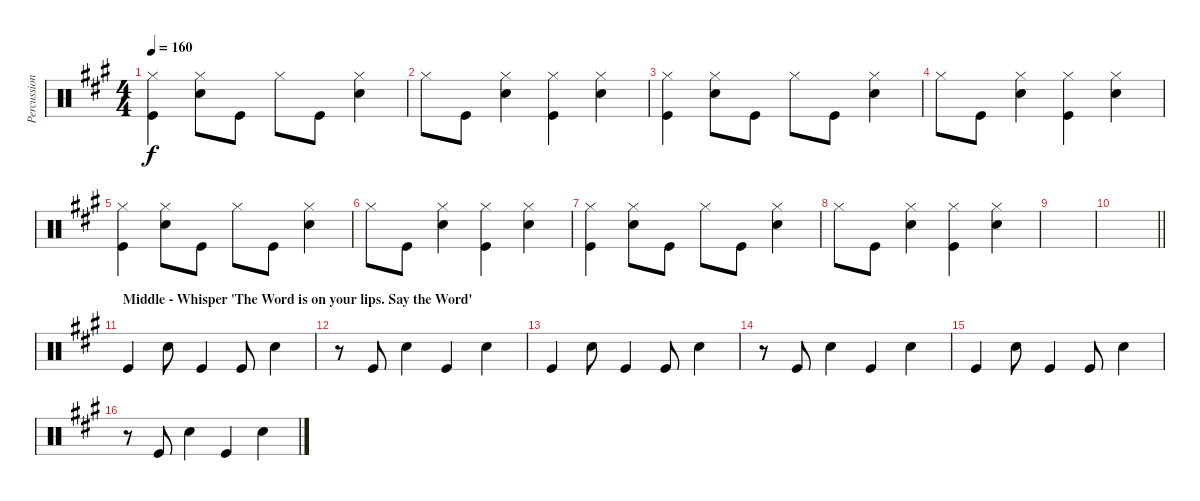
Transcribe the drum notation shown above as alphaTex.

\track ("Percussion" "Percussion") {instrument percussion}
\staff {score}
\articulation defaults
\ts (4 4)
\tempo 160
\clef neutral
\ks a
("Hi-Hat (closed)" "Kick (hit)").4{dy f} ("Snare (hit) 2" "Hi-Hat (closed)").8 "Kick (hit)".8 "Hi-Hat (closed)".8 "Kick (hit)".8 ("Snare (hit) 2" "Hi-Hat (closed)").4 |
"Hi-Hat (closed)".8 "Kick (hit)".8 ("Snare (hit) 2" "Hi-Hat (closed)").4 ("Kick (hit)" "Hi-Hat (closed)").4 ("Snare (hit) 2" "Hi-Hat (closed)").4 |
("Hi-Hat (closed)" "Kick (hit)").4 ("Snare (hit) 2" "Hi-Hat (closed)").8 "Kick (hit)".8 "Hi-Hat (closed)".8 "Kick (hit)".8 ("Snare (hit) 2" "Hi-Hat (closed)").4 |
"Hi-Hat (closed)".8 "Kick (hit)".8 ("Snare (hit) 2" "Hi-Hat (closed)").4 ("Kick (hit)" "Hi-Hat (closed)").4 ("Snare (hit) 2" "Hi-Hat (closed)").4 |
("Hi-Hat (closed)" "Kick (hit)").4 ("Snare (hit) 2" "Hi-Hat (closed)").8 "Kick (hit)".8 "Hi-Hat (closed)".8 "Kick (hit)".8 ("Snare (hit) 2" "Hi-Hat (closed)").4 |
"Hi-Hat (closed)".8 "Kick (hit)".8 ("Snare (hit) 2" "Hi-Hat (closed)").4 ("Kick (hit)" "Hi-Hat (closed)").4 ("Snare (hit) 2" "Hi-Hat (closed)").4 |
("Hi-Hat (closed)" "Kick (hit)").4 ("Snare (hit) 2" "Hi-Hat (closed)").8 "Kick (hit)".8 "Hi-Hat (closed)".8 "Kick (hit)".8 ("Snare (hit) 2" "Hi-Hat (closed)").4 |
"Hi-Hat (closed)".8 "Kick (hit)".8 ("Snare (hit) 2" "Hi-Hat (closed)").4 ("Kick (hit)" "Hi-Hat (closed)").4 ("Snare (hit) 2" "Hi-Hat (closed)").4 |
|
\barLineRight lightlight
|
\section ("" "Middle - Whisper 'The Word is on your lips. Say the Word'")
"Kick (hit)".4 "Snare (hit) 2".8 "Kick (hit)".4 "Kick (hit)".8 "Snare (hit) 2".4 |
r.8 "Kick (hit)".8 "Snare (hit) 2".4 "Kick (hit)".4 "Snare (hit) 2".4 |
"Kick (hit)".4 "Snare (hit) 2".8 "Kick (hit)".4 "Kick (hit)".8 "Snare (hit) 2".4 |
r.8 "Kick (hit)".8 "Snare (hit) 2".4 "Kick (hit)".4 "Snare (hit) 2".4 |
"Kick (hit)".4 "Snare (hit) 2".8 "Kick (hit)".4 "Kick (hit)".8 "Snare (hit) 2".4 |
r.8 "Kick (hit)".8 "Snare (hit) 2".4 "Kick (hit)".4 "Snare (hit) 2".4
